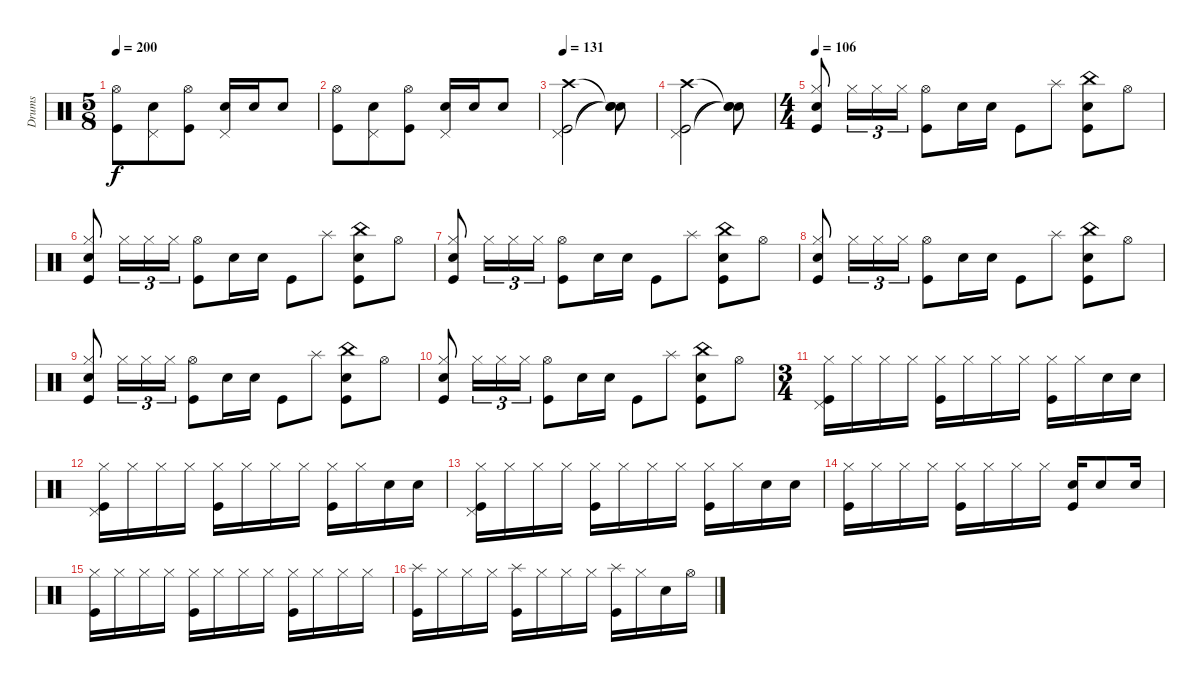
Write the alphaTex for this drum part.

\track ("Drums" "Drums") {instrument percussion}
\staff {score}
\articulation defaults
\ts (5 8)
\tempo 200
\clef neutral
\ks c
("Kick (hit)" "Hi-Hat (open)").8{dy f} ("Snare (hit) 2" "Pedal Hi-Hat (hit)").8 ("Kick (hit)" "Hi-Hat (open)").8 ("Snare (hit) 2" "Pedal Hi-Hat (hit)").16 "Snare (hit) 2".16 "Snare (hit) 2".8 |
("Kick (hit)" "Hi-Hat (open)").8 ("Snare (hit) 2" "Pedal Hi-Hat (hit)").8 ("Kick (hit)" "Hi-Hat (open)").8 ("Snare (hit) 2" "Pedal Hi-Hat (hit)").16 "Snare (hit) 2".16 "Snare (hit) 2".8 |
\tempo 131
("Pedal Hi-Hat (hit)" "Crash high (hit)" "Kick (hit)").2 ("Snare (hit)"{t} "Snare (hit)"{t} "Snare (hit)"{t}).8 |
("Pedal Hi-Hat (hit)" "Crash high (hit)" "Kick (hit)").2 ("Snare (hit)"{t} "Snare (hit)"{t} "Snare (hit)"{t}).8 |
\ts (4 4)
\tempo 106
("Hi-Hat (closed)" "Electric Snare (hit)" "Kick (hit)").8 "Hi-Hat (closed)".16{tu (3 2)} "Hi-Hat (closed)".16{tu (3 2)} "Hi-Hat (closed)".16{tu (3 2)} ("Hi-Hat (open)" "Kick (hit)").8 "Electric Snare (hit)".16 "Electric Snare (hit)".16 "Kick (hit)".8 "Splash (hit)".8 ("China (hit)" "Electric Snare (hit)" "Kick (hit)").8 "Hi-Hat (open)".8 |
("Hi-Hat (closed)" "Electric Snare (hit)" "Kick (hit)").8 "Hi-Hat (closed)".16{tu (3 2)} "Hi-Hat (closed)".16{tu (3 2)} "Hi-Hat (closed)".16{tu (3 2)} ("Hi-Hat (open)" "Kick (hit)").8 "Electric Snare (hit)".16 "Electric Snare (hit)".16 "Kick (hit)".8 "Splash (hit)".8 ("China (hit)" "Electric Snare (hit)" "Kick (hit)").8 "Hi-Hat (open)".8 |
("Hi-Hat (closed)" "Electric Snare (hit)" "Kick (hit)").8 "Hi-Hat (closed)".16{tu (3 2)} "Hi-Hat (closed)".16{tu (3 2)} "Hi-Hat (closed)".16{tu (3 2)} ("Hi-Hat (open)" "Kick (hit)").8 "Electric Snare (hit)".16 "Electric Snare (hit)".16 "Kick (hit)".8 "Splash (hit)".8 ("China (hit)" "Electric Snare (hit)" "Kick (hit)").8 "Hi-Hat (open)".8 |
("Hi-Hat (closed)" "Electric Snare (hit)" "Kick (hit)").8 "Hi-Hat (closed)".16{tu (3 2)} "Hi-Hat (closed)".16{tu (3 2)} "Hi-Hat (closed)".16{tu (3 2)} ("Hi-Hat (open)" "Kick (hit)").8 "Electric Snare (hit)".16 "Electric Snare (hit)".16 "Kick (hit)".8 "Splash (hit)".8 ("China (hit)" "Electric Snare (hit)" "Kick (hit)").8 "Hi-Hat (open)".8 |
("Hi-Hat (closed)" "Electric Snare (hit)" "Kick (hit)").8 "Hi-Hat (closed)".16{tu (3 2)} "Hi-Hat (closed)".16{tu (3 2)} "Hi-Hat (closed)".16{tu (3 2)} ("Hi-Hat (open)" "Kick (hit)").8 "Electric Snare (hit)".16 "Electric Snare (hit)".16 "Kick (hit)".8 "Splash (hit)".8 ("China (hit)" "Electric Snare (hit)" "Kick (hit)").8 "Hi-Hat (open)".8 |
("Hi-Hat (closed)" "Electric Snare (hit)" "Kick (hit)").8 "Hi-Hat (closed)".16{tu (3 2)} "Hi-Hat (closed)".16{tu (3 2)} "Hi-Hat (closed)".16{tu (3 2)} ("Hi-Hat (open)" "Kick (hit)").8 "Electric Snare (hit)".16 "Electric Snare (hit)".16 "Kick (hit)".8 "Splash (hit)".8 ("China (hit)" "Electric Snare (hit)" "Kick (hit)").8 "Hi-Hat (open)".8 |
\ts (3 4)
("Hi-Hat (closed)" "Kick (hit)" "Pedal Hi-Hat (hit)").16 "Hi-Hat (closed)".16 "Hi-Hat (closed)".16 "Hi-Hat (closed)".16 ("Hi-Hat (closed)" "Kick (hit)").16 "Hi-Hat (closed)".16 "Hi-Hat (closed)".16 "Hi-Hat (closed)".16 ("Hi-Hat (closed)" "Kick (hit)").16 "Hi-Hat (closed)".16 "Snare (hit) 2".16 "Snare (hit) 2".16 |
("Hi-Hat (closed)" "Kick (hit)" "Pedal Hi-Hat (hit)").16 "Hi-Hat (closed)".16 "Hi-Hat (closed)".16 "Hi-Hat (closed)".16 ("Hi-Hat (closed)" "Kick (hit)").16 "Hi-Hat (closed)".16 "Hi-Hat (closed)".16 "Hi-Hat (closed)".16 ("Hi-Hat (closed)" "Kick (hit)").16 "Hi-Hat (closed)".16 "Snare (hit) 2".16 "Snare (hit) 2".16 |
("Hi-Hat (closed)" "Kick (hit)" "Pedal Hi-Hat (hit)").16 "Hi-Hat (closed)".16 "Hi-Hat (closed)".16 "Hi-Hat (closed)".16 ("Hi-Hat (closed)" "Kick (hit)").16 "Hi-Hat (closed)".16 "Hi-Hat (closed)".16 "Hi-Hat (closed)".16 ("Hi-Hat (closed)" "Kick (hit)").16 "Hi-Hat (closed)".16 "Snare (hit) 2".16 "Snare (hit) 2".16 |
("Hi-Hat (closed)" "Kick (hit)").16 "Hi-Hat (closed)".16 "Hi-Hat (closed)".16 "Hi-Hat (closed)".16 ("Hi-Hat (closed)" "Kick (hit)").16 "Hi-Hat (closed)".16 "Hi-Hat (closed)".16 "Hi-Hat (closed)".16 ("Snare (hit) 2" "Kick (hit)").16 "Snare (hit) 2".8 "Snare (hit) 2".16 |
("Hi-Hat (closed)" "Kick (hit)").16 "Hi-Hat (closed)".16 "Hi-Hat (closed)".16 "Hi-Hat (closed)".16 ("Hi-Hat (closed)" "Kick (hit)").16 "Hi-Hat (closed)".16 "Hi-Hat (closed)".16 "Hi-Hat (closed)".16 ("Hi-Hat (closed)" "Kick (hit)").16 "Hi-Hat (closed)".16 "Hi-Hat (closed)".16 "Hi-Hat (closed)".16 |
("Splash (hit)" "Kick (hit)").16 "Hi-Hat (closed)".16 "Hi-Hat (closed)".16 "Hi-Hat (closed)".16 ("Splash (hit)" "Kick (hit)").16 "Hi-Hat (closed)".16 "Hi-Hat (closed)".16 "Hi-Hat (closed)".16 ("Splash (hit)" "Kick (hit)").16 "Hi-Hat (closed)".16 "Snare (hit) 2".16 "Hi-Hat (open)".16
